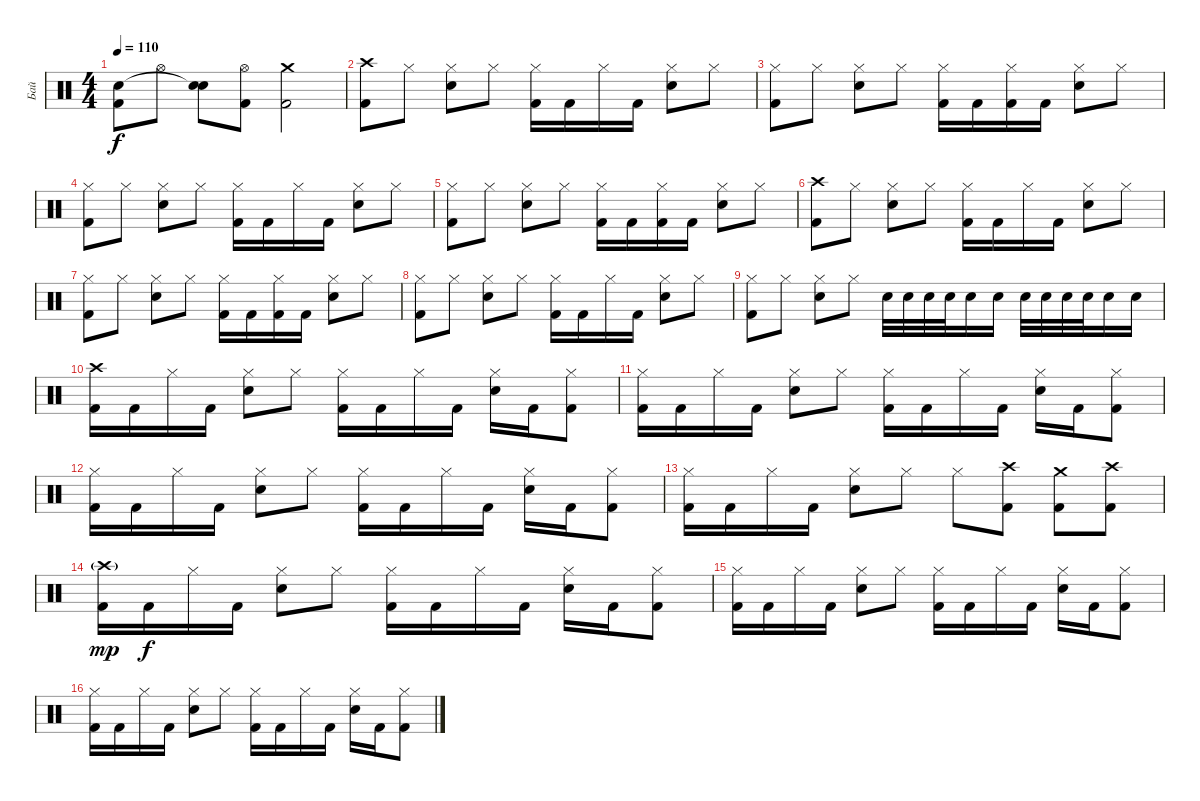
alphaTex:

\track ("Бай" "Бай") {instrument percussion}
\staff {score}
\articulation defaults
\ts (4 4)
\tempo 110
\clef neutral
\ks c
("Kick (hit) 2" "Snare (hit)"{t}).8{dy f} "Hi-Hat (open)".8 ("Electric Snare (hit)" "Snare (hit)"{t}).8 ("Kick (hit) 2" "Hi-Hat (open)").8 ("Crash medium (hit)" "Kick (hit) 2").2 |
("Crash high (hit)" "Kick (hit) 2").8 "Hi-Hat (closed)".8 ("Electric Snare (hit)" "Hi-Hat (closed)").8 "Hi-Hat (closed)".8 ("Kick (hit) 2" "Hi-Hat (closed)").16 "Kick (hit) 2".16 "Hi-Hat (closed)".16 "Kick (hit) 2".16 ("Electric Snare (hit)" "Hi-Hat (closed)").8 "Hi-Hat (closed)".8 |
("Kick (hit) 2" "Hi-Hat (closed)").8 "Hi-Hat (closed)".8 ("Electric Snare (hit)" "Hi-Hat (closed)").8 "Hi-Hat (closed)".8 ("Kick (hit) 2" "Hi-Hat (closed)").16 "Kick (hit) 2".16 ("Kick (hit) 2" "Hi-Hat (closed)").16 "Kick (hit) 2".16 ("Electric Snare (hit)" "Hi-Hat (closed)").8 "Hi-Hat (closed)".8 |
("Kick (hit) 2" "Hi-Hat (closed)").8 "Hi-Hat (closed)".8 ("Electric Snare (hit)" "Hi-Hat (closed)").8 "Hi-Hat (closed)".8 ("Kick (hit) 2" "Hi-Hat (closed)").16 "Kick (hit) 2".16 "Hi-Hat (closed)".16 "Kick (hit) 2".16 ("Electric Snare (hit)" "Hi-Hat (closed)").8 "Hi-Hat (closed)".8 |
("Kick (hit) 2" "Hi-Hat (closed)").8 "Hi-Hat (closed)".8 ("Electric Snare (hit)" "Hi-Hat (closed)").8 "Hi-Hat (closed)".8 ("Kick (hit) 2" "Hi-Hat (closed)").16 "Kick (hit) 2".16 ("Kick (hit) 2" "Hi-Hat (closed)").16 "Kick (hit) 2".16 ("Electric Snare (hit)" "Hi-Hat (closed)").8 "Hi-Hat (closed)".8 |
("Crash high (hit)" "Kick (hit) 2").8 "Hi-Hat (closed)".8 ("Electric Snare (hit)" "Hi-Hat (closed)").8 "Hi-Hat (closed)".8 ("Kick (hit) 2" "Hi-Hat (closed)").16 "Kick (hit) 2".16 "Hi-Hat (closed)".16 "Kick (hit) 2".16 ("Electric Snare (hit)" "Hi-Hat (closed)").8 "Hi-Hat (closed)".8 |
("Kick (hit) 2" "Hi-Hat (closed)").8 "Hi-Hat (closed)".8 ("Electric Snare (hit)" "Hi-Hat (closed)").8 "Hi-Hat (closed)".8 ("Kick (hit) 2" "Hi-Hat (closed)").16 "Kick (hit) 2".16 ("Kick (hit) 2" "Hi-Hat (closed)").16 "Kick (hit) 2".16 ("Electric Snare (hit)" "Hi-Hat (closed)").8 "Hi-Hat (closed)".8 |
("Kick (hit) 2" "Hi-Hat (closed)").8 "Hi-Hat (closed)".8 ("Electric Snare (hit)" "Hi-Hat (closed)").8 "Hi-Hat (closed)".8 ("Kick (hit) 2" "Hi-Hat (closed)").16 "Kick (hit) 2".16 "Hi-Hat (closed)".16 "Kick (hit) 2".16 ("Electric Snare (hit)" "Hi-Hat (closed)").8 "Hi-Hat (closed)".8 |
("Kick (hit) 2" "Hi-Hat (closed)").8 "Hi-Hat (closed)".8 ("Electric Snare (hit)" "Hi-Hat (closed)").8 "Hi-Hat (closed)".8 "Electric Snare (hit)".32 "Electric Snare (hit)".32 "Electric Snare (hit)".32 "Electric Snare (hit)".32 "Electric Snare (hit)".16 "Electric Snare (hit)".16 "Electric Snare (hit)".32 "Electric Snare (hit)".32 "Electric Snare (hit)".32 "Electric Snare (hit)".32 "Electric Snare (hit)".16 "Electric Snare (hit)".16 |
("Crash high (hit)" "Kick (hit) 2").16 "Kick (hit) 2".16 "Hi-Hat (closed)".16 "Kick (hit) 2".16 ("Electric Snare (hit)" "Hi-Hat (closed)").8 "Hi-Hat (closed)".8 ("Kick (hit) 2" "Hi-Hat (closed)").16 "Kick (hit) 2".16 "Hi-Hat (closed)".16 "Kick (hit) 2".16 ("Electric Snare (hit)" "Hi-Hat (closed)").16 "Kick (hit) 2".16 ("Kick (hit) 2" "Hi-Hat (closed)").8 |
("Kick (hit) 2" "Hi-Hat (closed)").16 "Kick (hit) 2".16 "Hi-Hat (closed)".16 "Kick (hit) 2".16 ("Electric Snare (hit)" "Hi-Hat (closed)").8 "Hi-Hat (closed)".8 ("Kick (hit) 2" "Hi-Hat (closed)").16 "Kick (hit) 2".16 "Hi-Hat (closed)".16 "Kick (hit) 2".16 ("Electric Snare (hit)" "Hi-Hat (closed)").16 "Kick (hit) 2".16 ("Kick (hit) 2" "Hi-Hat (closed)").8 |
("Kick (hit) 2" "Hi-Hat (closed)").16 "Kick (hit) 2".16 "Hi-Hat (closed)".16 "Kick (hit) 2".16 ("Electric Snare (hit)" "Hi-Hat (closed)").8 "Hi-Hat (closed)".8 ("Kick (hit) 2" "Hi-Hat (closed)").16 "Kick (hit) 2".16 "Hi-Hat (closed)".16 "Kick (hit) 2".16 ("Electric Snare (hit)" "Hi-Hat (closed)").16 "Kick (hit) 2".16 ("Kick (hit) 2" "Hi-Hat (closed)").8 |
("Kick (hit) 2" "Hi-Hat (closed)").16 "Kick (hit) 2".16 "Hi-Hat (closed)".16 "Kick (hit) 2".16 ("Electric Snare (hit)" "Hi-Hat (closed)").8 "Hi-Hat (closed)".8 "Hi-Hat (closed)".8 ("Crash high (hit)" "Kick (hit) 2").8 ("Crash medium (hit)" "Kick (hit) 2").8 ("Crash high (hit)" "Kick (hit) 2").8 |
("Crash high (hit)"{g} "Kick (hit) 2").16{dy mp} "Kick (hit) 2".16{dy f} "Hi-Hat (closed)".16 "Kick (hit) 2".16 ("Electric Snare (hit)" "Hi-Hat (closed)").8 "Hi-Hat (closed)".8 ("Kick (hit) 2" "Hi-Hat (closed)").16 "Kick (hit) 2".16 "Hi-Hat (closed)".16 "Kick (hit) 2".16 ("Electric Snare (hit)" "Hi-Hat (closed)").16 "Kick (hit) 2".16 ("Kick (hit) 2" "Hi-Hat (closed)").8 |
("Kick (hit) 2" "Hi-Hat (closed)").16 "Kick (hit) 2".16 "Hi-Hat (closed)".16 "Kick (hit) 2".16 ("Electric Snare (hit)" "Hi-Hat (closed)").8 "Hi-Hat (closed)".8 ("Kick (hit) 2" "Hi-Hat (closed)").16 "Kick (hit) 2".16 "Hi-Hat (closed)".16 "Kick (hit) 2".16 ("Electric Snare (hit)" "Hi-Hat (closed)").16 "Kick (hit) 2".16 ("Kick (hit) 2" "Hi-Hat (closed)").8 |
("Kick (hit) 2" "Hi-Hat (closed)").16 "Kick (hit) 2".16 "Hi-Hat (closed)".16 "Kick (hit) 2".16 ("Electric Snare (hit)" "Hi-Hat (closed)").8 "Hi-Hat (closed)".8 ("Kick (hit) 2" "Hi-Hat (closed)").16 "Kick (hit) 2".16 "Hi-Hat (closed)".16 "Kick (hit) 2".16 ("Electric Snare (hit)" "Hi-Hat (closed)").16 "Kick (hit) 2".16 ("Kick (hit) 2" "Hi-Hat (closed)").8
